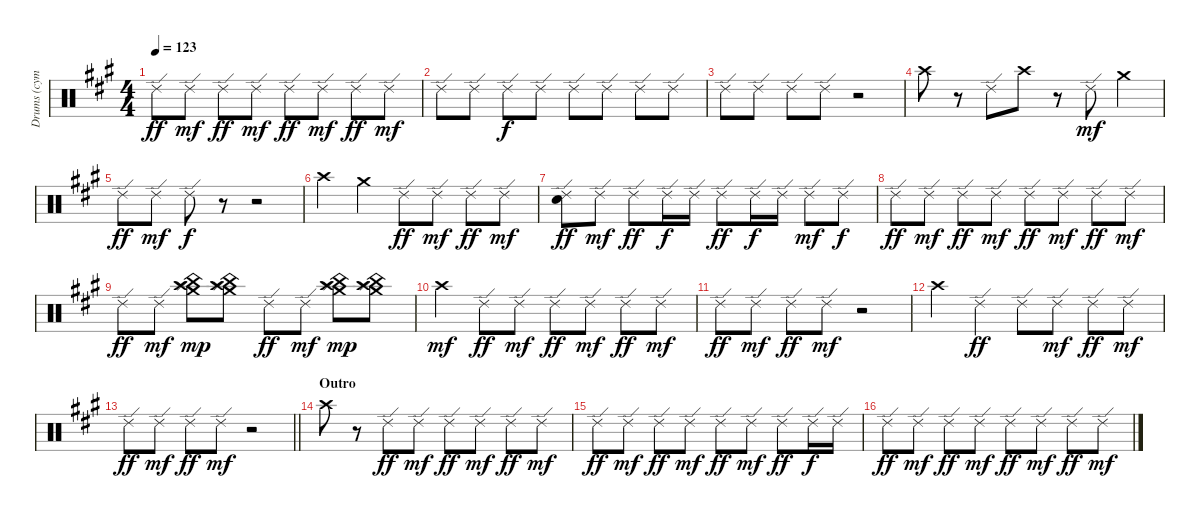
\track ("Drums (cymbals)" "Drums (cym") {instrument percussion}
\staff {score}
\articulation defaults
\ts (4 4)
\tempo 123
\clef neutral
\ks a "Ride (edge) 2".8{dy ff} "Ride (edge) 2".8{dy mf} "Ride (edge) 2".8{dy ff} "Ride (edge) 2".8{dy mf} "Ride (edge) 2".8{dy ff} "Ride (edge) 2".8{dy mf} "Ride (edge) 2".8{dy ff} "Ride (edge) 2".8{dy mf}
|
"Ride (edge) 2".8 "Ride (edge) 2".8 "Ride (edge) 2".8{dy f} "Ride (edge) 2".8 "Ride (edge) 2".8 "Ride (edge) 2".8 "Ride (edge) 2".8 "Ride (edge) 2".8 |
"Ride (edge) 2".8 "Ride (edge) 2".8 "Ride (edge) 2".8 "Ride (edge) 2".8 r.2 |
"Crash high (hit)".8 r.8 "Ride (edge) 2".8 "Crash high (hit)".8 r.8 "Ride (edge) 2".8{dy mf} "Crash medium (hit)".4 |
"Ride (edge) 2".8{dy ff} "Ride (edge) 2".8{dy mf} "Ride (edge) 2".8{dy f} r.8 r.2 |
"Crash high (hit)".4 "Crash medium (hit)".4 "Ride (edge) 2".8{dy ff} "Ride (edge) 2".8{dy mf} "Ride (edge) 2".8{dy ff} "Ride (edge) 2".8{dy mf} |
("Ride (edge) 2" "Snare (hit)").8{dy ff} "Ride (edge) 2".8{dy mf} "Ride (edge) 2".8{dy ff} "Ride (edge) 2".16{dy f} "Ride (edge) 2".16 "Ride (edge) 2".8{dy ff} "Ride (edge) 2".16{dy f} "Ride (edge) 2".16 "Ride (edge) 2".8{dy mf} "Ride (edge) 2".8{dy f} |
"Ride (edge) 2".8{dy ff} "Ride (edge) 2".8{dy mf} "Ride (edge) 2".8{dy ff} "Ride (edge) 2".8{dy mf} "Ride (edge) 2".8{dy ff} "Ride (edge) 2".8{dy mf} "Ride (edge) 2".8{dy ff} "Ride (edge) 2".8{dy mf} |
"Ride (edge) 2".8{dy ff} "Ride (edge) 2".8{dy mf} ("China (hit)" "Crash high (hit)" "Crash medium (hit)" "Splash (hit)").8{dy mp} ("China (hit)" "Crash high (hit)" "Crash medium (hit)" "Splash (hit)").8 "Ride (edge) 2".8{dy ff} "Ride (edge) 2".8{dy mf} ("China (hit)" "Crash high (hit)" "Crash medium (hit)" "Splash (hit)").8{dy mp} ("China (hit)" "Crash high (hit)" "Crash medium (hit)" "Splash (hit)").8 |
"Crash high (hit)".4{dy mf} "Ride (edge) 2".8{dy ff} "Ride (edge) 2".8{dy mf} "Ride (edge) 2".8{dy ff} "Ride (edge) 2".8{dy mf} "Ride (edge) 2".8{dy ff} "Ride (edge) 2".8{dy mf} |
"Ride (edge) 2".8{dy ff} "Ride (edge) 2".8{dy mf} "Ride (edge) 2".8{dy ff} "Ride (edge) 2".8{dy mf} r.2 |
"Crash high (hit)".4 "Ride (edge) 2".4{dy ff} "Ride (edge) 2".8 "Ride (edge) 2".8{dy mf} "Ride (edge) 2".8{dy ff} "Ride (edge) 2".8{dy mf} |
\barLineRight lightlight "Ride (edge) 2".8{dy ff} "Ride (edge) 2".8{dy mf} "Ride (edge) 2".8{dy ff} "Ride (edge) 2".8{dy mf}
r.2 |
\section ("" "Outro")
"Crash high (hit)".8 r.8 "Ride (edge) 2".8{dy ff} "Ride (edge) 2".8{dy mf} "Ride (edge) 2".8{dy ff} "Ride (edge) 2".8{dy mf} "Ride (edge) 2".8{dy ff} "Ride (edge) 2".8{dy mf} |
"Ride (edge) 2".8{dy ff} "Ride (edge) 2".8{dy mf} "Ride (edge) 2".8{dy ff} "Ride (edge) 2".8{dy mf} "Ride (edge) 2".8{dy ff} "Ride (edge) 2".8{dy mf} "Ride (edge) 2".8{dy ff} "Ride (edge) 2".16{dy f} "Ride (edge) 2".16 |
"Ride (edge) 2".8{dy ff} "Ride (edge) 2".8{dy mf} "Ride (edge) 2".8{dy ff} "Ride (edge) 2".8{dy mf} "Ride (edge) 2".8{dy ff} "Ride (edge) 2".8{dy mf} "Ride (edge) 2".8{dy ff} "Ride (edge) 2".8{dy mf}
